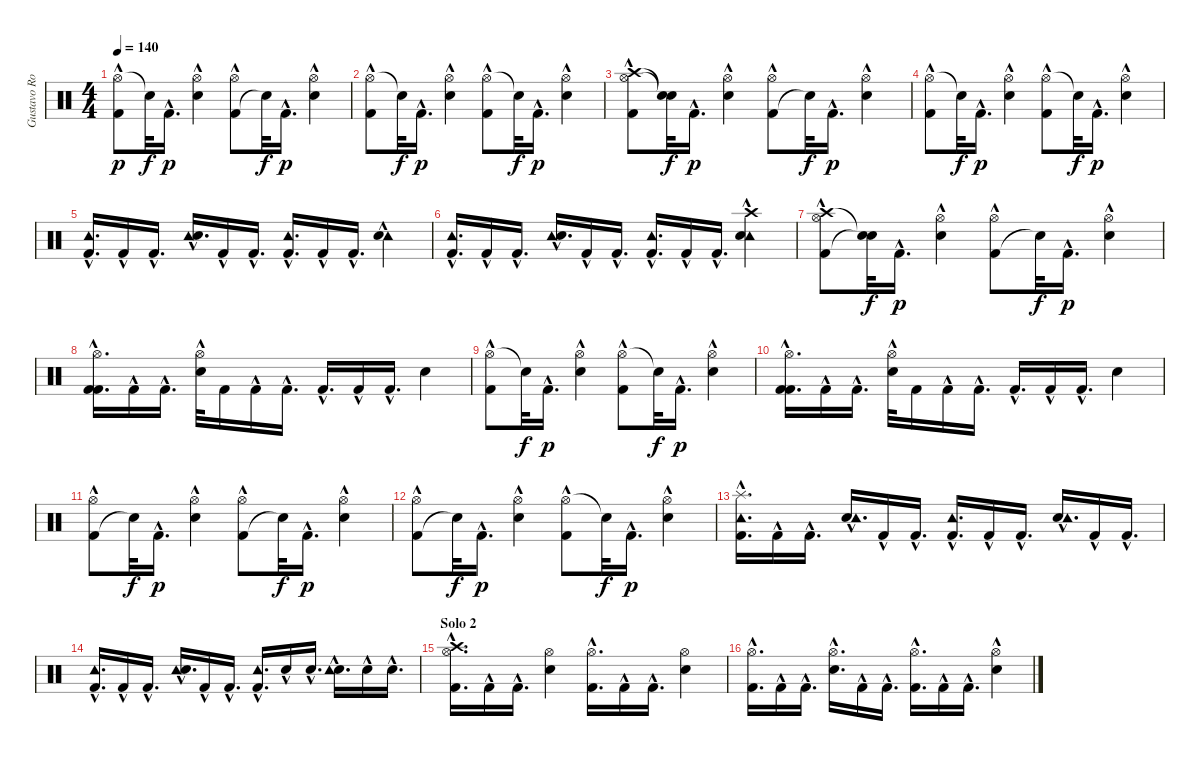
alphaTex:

\track ("Gustavo Rowek" "Gustavo Ro") {instrument percussion}
\staff {score}
\articulation defaults
\ts (4 4)
\tempo 140
\clef neutral
\ks c
("Hi-Hat (open)" "Kick (hit) 2"{hac}).8{dy p} "Snare (hit)"{t}.32{dy f} "Kick (hit) 2"{hac}.16{d dy p} ("Hi-Hat (open)" "Snare (hit) 2"{hac}).4 ("Kick (hit) 2"{hac} "Hi-Hat (open)").8 "Snare (hit)"{t}.32{dy f} "Kick (hit) 2"{hac}.16{d dy p} ("Hi-Hat (open)" "Snare (hit) 2"{hac}).4 |
("Hi-Hat (open)" "Kick (hit) 2"{hac}).8 "Snare (hit)"{t}.32{dy f} "Kick (hit) 2"{hac}.16{d dy p} ("Hi-Hat (open)" "Snare (hit) 2"{hac}).4 ("Hi-Hat (open)" "Kick (hit) 2"{hac}).8 "Snare (hit)"{t}.32{dy f} "Kick (hit) 2"{hac}.16{d dy p} ("Hi-Hat (open)" "Snare (hit) 2"{hac}).4 |
("Hi-Hat (open)" "Crash high (hit)" "Kick (hit) 2"{hac}).8 ("Snare (hit)"{t} "Snare (hit)"{t}).32{dy f} "Kick (hit) 2"{hac}.16{d dy p} ("Snare (hit) 2"{hac} "Hi-Hat (open)").4 ("Kick (hit) 2"{hac} "Hi-Hat (open)").8 "Snare (hit)"{t}.32{dy f} "Kick (hit) 2"{hac}.16{d dy p} ("Snare (hit) 2"{hac} "Hi-Hat (open)").4 |
("Hi-Hat (open)" "Kick (hit) 2"{hac}).8 "Snare (hit)"{t}.32{dy f} "Kick (hit) 2"{hac}.16{d dy p} ("Snare (hit) 2"{hac} "Hi-Hat (open)").4 ("Hi-Hat (open)" "Kick (hit) 2"{hac}).8 "Snare (hit)"{t}.32{dy f} "Kick (hit) 2"{hac}.16{d dy p} ("Hi-Hat (open)" "Snare (hit) 2"{hac}).4 |
("Kick (hit) 2"{hac} "Tambourine (hit)").16{d} "Kick (hit) 2"{hac}.16 "Kick (hit) 2"{hac}.16{d} ("Tambourine (hit)" "Snare (hit) 2"{hac}).16{d} "Kick (hit) 2"{hac}.16 "Kick (hit) 2"{hac}.16{d} ("Kick (hit) 2"{hac} "Tambourine (hit)").16{d} "Kick (hit) 2"{hac}.16 "Kick (hit) 2"{hac}.16{d} ("Tambourine (hit)" "Snare (hit) 2"{hac}).4 |
("Tambourine (hit)" "Kick (hit) 2"{hac}).16{d} "Kick (hit) 2"{hac}.16 "Kick (hit) 2"{hac}.16{d} ("Tambourine (hit)" "Snare (hit) 2"{hac}).16{d} "Kick (hit) 2"{hac}.16 "Kick (hit) 2"{hac}.16{d} ("Tambourine (hit)" "Kick (hit) 2"{hac}).16{d} "Kick (hit) 2"{hac}.16 "Kick (hit) 2"{hac}.16{d} ("Crash high (hit)" "Tambourine (hit)" "Snare (hit) 2"{hac}).4 |
("Crash high (hit)" "Kick (hit) 2"{hac} "Hi-Hat (open)").8 ("Snare (hit)"{t} "Snare (hit)"{t}).32{dy f} "Kick (hit) 2"{hac}.16{d dy p} ("Snare (hit) 2"{hac} "Hi-Hat (open)").4 ("Kick (hit) 2"{hac} "Hi-Hat (open)").8 "Snare (hit)"{t}.32{dy f} "Kick (hit) 2"{hac}.16{d dy p} ("Snare (hit) 2"{hac} "Hi-Hat (open)").4 |
("Kick (hit) 2"{hac} "Kick (hit) 2"{hac} "Hi-Hat (open)").16{d} "Kick (hit) 2"{hac}.16 "Kick (hit) 2"{hac}.16{d} ("Hi-Hat (open)" "Snare (hit) 2"{hac}).32 "Kick (hit) 2".16 "Kick (hit) 2"{hac}.16 "Kick (hit) 2"{hac}.16{d} "Kick (hit) 2"{hac}.16{d} "Kick (hit) 2"{hac}.16 "Kick (hit) 2"{hac}.16{d} "Snare (hit) 2".4 |
("Hi-Hat (open)" "Kick (hit) 2"{hac}).8 "Snare (hit)"{t}.32{dy f} "Kick (hit) 2"{hac}.16{d dy p} ("Hi-Hat (open)" "Snare (hit) 2"{hac}).4 ("Hi-Hat (open)" "Kick (hit) 2"{hac}).8 "Snare (hit)"{t}.32{dy f} "Kick (hit) 2"{hac}.16{d dy p} ("Hi-Hat (open)" "Snare (hit) 2"{hac}).4 |
("Kick (hit) 2"{hac} "Hi-Hat (open)" "Kick (hit) 2"{hac}).16{d} "Kick (hit) 2"{hac}.16 "Kick (hit) 2"{hac}.16{d} ("Hi-Hat (open)" "Snare (hit) 2"{hac}).32 "Kick (hit) 2".16 "Kick (hit) 2"{hac}.16 "Kick (hit) 2"{hac}.16{d} "Kick (hit) 2"{hac}.16{d} "Kick (hit) 2"{hac}.16 "Kick (hit) 2"{hac}.16{d} "Snare (hit) 2".4 |
("Kick (hit) 2"{hac} "Hi-Hat (open)").8 "Snare (hit)"{t}.32{dy f} "Kick (hit) 2"{hac}.16{d dy p} ("Snare (hit) 2"{hac} "Hi-Hat (open)").4 ("Kick (hit) 2"{hac} "Hi-Hat (open)").8 "Snare (hit)"{t}.32{dy f} "Kick (hit) 2"{hac}.16{d dy p} ("Snare (hit) 2"{hac} "Hi-Hat (open)").4 |
("Kick (hit) 2"{hac} "Hi-Hat (open)").8 "Snare (hit)"{t}.32{dy f} "Kick (hit) 2"{hac}.16{d dy p} ("Snare (hit) 2"{hac} "Hi-Hat (open)").4 ("Hi-Hat (open)" "Kick (hit) 2"{hac}).8 "Snare (hit)"{t}.32{dy f} "Kick (hit) 2"{hac}.16{d dy p} ("Hi-Hat (open)" "Snare (hit) 2"{hac}).4 |
("Tambourine (hit)" "Kick (hit) 2"{hac} "Splash (hit)").16{d} "Kick (hit) 2"{hac}.16 "Kick (hit) 2"{hac}.16{d} ("Snare (hit) 2"{hac} "Tambourine (hit)").16{d} "Kick (hit) 2"{hac}.16 "Kick (hit) 2"{hac}.16{d} ("Kick (hit) 2"{hac} "Tambourine (hit)").16{d} "Kick (hit) 2"{hac}.16 "Kick (hit) 2"{hac}.16{d} ("Snare (hit) 2"{hac} "Tambourine (hit)").16{d} "Kick (hit) 2"{hac}.16 "Kick (hit) 2"{hac}.16{d} |
("Tambourine (hit)" "Kick (hit) 2"{hac}).16{d} "Kick (hit) 2"{hac}.16 "Kick (hit) 2"{hac}.16{d} ("Tambourine (hit)" "Snare (hit) 2"{hac}).16{d} "Kick (hit) 2"{hac}.16 "Kick (hit) 2"{hac}.16{d} ("Tambourine (hit)" "Kick (hit) 2"{hac}).16{d} "Snare (hit) 2"{hac}.16 "Snare (hit) 2"{hac}.16{d} ("Snare (hit) 2"{hac} "Tambourine (hit)").16{d} "Snare (hit) 2"{hac}.16 "Snare (hit) 2"{hac}.16{d} |
\section ("" "Solo 2")
("Kick (hit) 2"{hac} "Hi-Hat (open)" "Crash high (hit)").16{d} "Kick (hit) 2"{hac}.16 "Kick (hit) 2"{hac}.16{d} ("Snare (hit) 2" "Hi-Hat (open)").4 ("Kick (hit) 2"{hac} "Hi-Hat (open)").16{d} "Kick (hit) 2"{hac}.16 "Kick (hit) 2"{hac}.16{d} ("Snare (hit) 2" "Hi-Hat (open)").4 |
("Kick (hit) 2"{hac} "Hi-Hat (open)").16{d} "Kick (hit) 2"{hac}.16 "Kick (hit) 2"{hac}.16{d} ("Snare (hit) 2"{hac} "Hi-Hat (open)").16{d} "Kick (hit) 2"{hac}.16 "Kick (hit) 2"{hac}.16{d} ("Kick (hit) 2"{hac} "Hi-Hat (open)").16{d} "Kick (hit) 2"{hac}.16 "Kick (hit) 2"{hac}.16{d} ("Electric Snare (hit)"{hac} "Hi-Hat (open)").4
